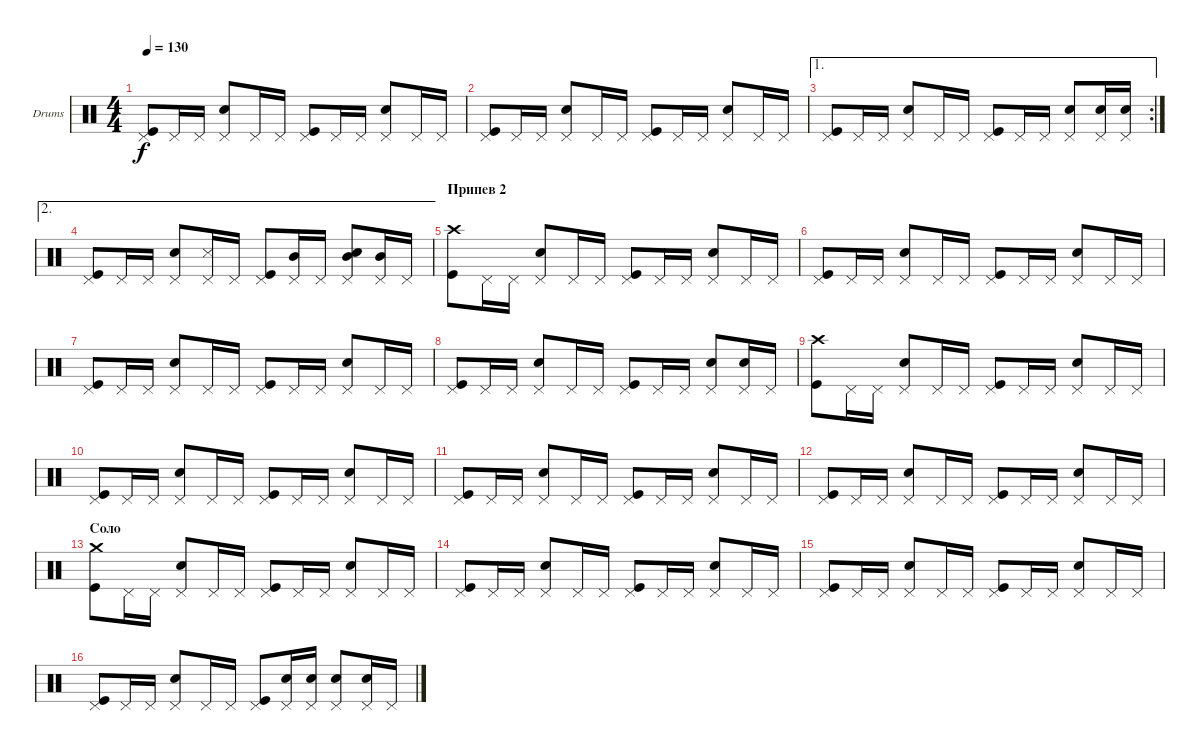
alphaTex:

\bracketExtendMode groupsimilarinstruments
\firstSystemTrackNameOrientation horizontal
\otherSystemsTrackNameOrientation horizontal
\track ("Drumkit" "Drums") {instrument percussion}
\staff {score}
\articulation defaults
\ts (4 4)
\tempo 130
\clef neutral
\ks c
("Pedal Hi-Hat (hit)" "Kick (hit)").8{dy f} "Pedal Hi-Hat (hit)".16 "Pedal Hi-Hat (hit)".16 ("Pedal Hi-Hat (hit)" "Snare (hit) 2").8 "Pedal Hi-Hat (hit)".16 "Pedal Hi-Hat (hit)".16 ("Pedal Hi-Hat (hit)" "Kick (hit)").8 "Pedal Hi-Hat (hit)".16 "Pedal Hi-Hat (hit)".16 ("Pedal Hi-Hat (hit)" "Snare (hit) 2").8 "Pedal Hi-Hat (hit)".16 "Pedal Hi-Hat (hit)".16 |
("Pedal Hi-Hat (hit)" "Kick (hit)").8 "Pedal Hi-Hat (hit)".16 "Pedal Hi-Hat (hit)".16 ("Pedal Hi-Hat (hit)" "Snare (hit) 2").8 "Pedal Hi-Hat (hit)".16 "Pedal Hi-Hat (hit)".16 ("Pedal Hi-Hat (hit)" "Kick (hit)").8 "Pedal Hi-Hat (hit)".16 "Pedal Hi-Hat (hit)".16 ("Pedal Hi-Hat (hit)" "Snare (hit) 2").8 "Pedal Hi-Hat (hit)".16 "Pedal Hi-Hat (hit)".16 |
\ae 1
\rc 2
("Pedal Hi-Hat (hit)" "Kick (hit)").8 "Pedal Hi-Hat (hit)".16 "Pedal Hi-Hat (hit)".16 ("Pedal Hi-Hat (hit)" "Snare (hit) 2").8 "Pedal Hi-Hat (hit)".16 "Pedal Hi-Hat (hit)".16 ("Pedal Hi-Hat (hit)" "Kick (hit)").8 "Pedal Hi-Hat (hit)".16 "Pedal Hi-Hat (hit)".16 ("Pedal Hi-Hat (hit)" "Snare (hit) 2").8 ("Pedal Hi-Hat (hit)" "Snare (hit) 2").16 ("Pedal Hi-Hat (hit)" "Snare (hit) 2").16 |
\ae 2
("Pedal Hi-Hat (hit)" "Kick (hit)").8 "Pedal Hi-Hat (hit)".16 "Pedal Hi-Hat (hit)".16 ("Pedal Hi-Hat (hit)" "Snare (hit) 2").8 ("Pedal Hi-Hat (hit)" "Snare (side stick) 3").16 "Pedal Hi-Hat (hit)".16 ("Pedal Hi-Hat (hit)" "Kick (hit)").8 ("Pedal Hi-Hat (hit)" "Mid Tom (hit)").16 "Pedal Hi-Hat (hit)".16 ("Pedal Hi-Hat (hit)" "Snare (hit) 2" "Mid Tom (hit)").8 ("Pedal Hi-Hat (hit)" "Mid Tom (hit)").16 "Pedal Hi-Hat (hit)".16 |
\section ("" "Припев 2")
("Crash high (hit)" "Kick (hit)").8 "Pedal Hi-Hat (hit)".16 "Pedal Hi-Hat (hit)".16 ("Pedal Hi-Hat (hit)" "Snare (hit) 2").8 "Pedal Hi-Hat (hit)".16 "Pedal Hi-Hat (hit)".16 ("Pedal Hi-Hat (hit)" "Kick (hit)").8 "Pedal Hi-Hat (hit)".16 "Pedal Hi-Hat (hit)".16 ("Pedal Hi-Hat (hit)" "Snare (hit) 2").8 "Pedal Hi-Hat (hit)".16 "Pedal Hi-Hat (hit)".16 |
("Pedal Hi-Hat (hit)" "Kick (hit)").8 "Pedal Hi-Hat (hit)".16 "Pedal Hi-Hat (hit)".16 ("Pedal Hi-Hat (hit)" "Snare (hit) 2").8 "Pedal Hi-Hat (hit)".16 "Pedal Hi-Hat (hit)".16 ("Pedal Hi-Hat (hit)" "Kick (hit)").8 "Pedal Hi-Hat (hit)".16 "Pedal Hi-Hat (hit)".16 ("Pedal Hi-Hat (hit)" "Snare (hit) 2").8 "Pedal Hi-Hat (hit)".16 "Pedal Hi-Hat (hit)".16 |
("Pedal Hi-Hat (hit)" "Kick (hit)").8 "Pedal Hi-Hat (hit)".16 "Pedal Hi-Hat (hit)".16 ("Pedal Hi-Hat (hit)" "Snare (hit) 2").8 "Pedal Hi-Hat (hit)".16 "Pedal Hi-Hat (hit)".16 ("Pedal Hi-Hat (hit)" "Kick (hit)").8 "Pedal Hi-Hat (hit)".16 "Pedal Hi-Hat (hit)".16 ("Pedal Hi-Hat (hit)" "Snare (hit) 2").8 "Pedal Hi-Hat (hit)".16 "Pedal Hi-Hat (hit)".16 |
("Pedal Hi-Hat (hit)" "Kick (hit)").8 "Pedal Hi-Hat (hit)".16 "Pedal Hi-Hat (hit)".16 ("Pedal Hi-Hat (hit)" "Snare (hit) 2").8 "Pedal Hi-Hat (hit)".16 "Pedal Hi-Hat (hit)".16 ("Pedal Hi-Hat (hit)" "Kick (hit)").8 "Pedal Hi-Hat (hit)".16 "Pedal Hi-Hat (hit)".16 ("Pedal Hi-Hat (hit)" "Snare (hit) 2").8 ("Pedal Hi-Hat (hit)" "Snare (hit) 2").16 "Pedal Hi-Hat (hit)".16 |
("Crash high (hit)" "Kick (hit)").8 "Pedal Hi-Hat (hit)".16 "Pedal Hi-Hat (hit)".16 ("Pedal Hi-Hat (hit)" "Snare (hit) 2").8 "Pedal Hi-Hat (hit)".16 "Pedal Hi-Hat (hit)".16 ("Pedal Hi-Hat (hit)" "Kick (hit)").8 "Pedal Hi-Hat (hit)".16 "Pedal Hi-Hat (hit)".16 ("Pedal Hi-Hat (hit)" "Snare (hit) 2").8 "Pedal Hi-Hat (hit)".16 "Pedal Hi-Hat (hit)".16 |
("Pedal Hi-Hat (hit)" "Kick (hit)").8 "Pedal Hi-Hat (hit)".16 "Pedal Hi-Hat (hit)".16 ("Pedal Hi-Hat (hit)" "Snare (hit) 2").8 "Pedal Hi-Hat (hit)".16 "Pedal Hi-Hat (hit)".16 ("Pedal Hi-Hat (hit)" "Kick (hit)").8 "Pedal Hi-Hat (hit)".16 "Pedal Hi-Hat (hit)".16 ("Pedal Hi-Hat (hit)" "Snare (hit) 2").8 "Pedal Hi-Hat (hit)".16 "Pedal Hi-Hat (hit)".16 |
("Pedal Hi-Hat (hit)" "Kick (hit)").8 "Pedal Hi-Hat (hit)".16 "Pedal Hi-Hat (hit)".16 ("Pedal Hi-Hat (hit)" "Snare (hit) 2").8 "Pedal Hi-Hat (hit)".16 "Pedal Hi-Hat (hit)".16 ("Pedal Hi-Hat (hit)" "Kick (hit)").8 "Pedal Hi-Hat (hit)".16 "Pedal Hi-Hat (hit)".16 ("Pedal Hi-Hat (hit)" "Snare (hit) 2").8 "Pedal Hi-Hat (hit)".16 "Pedal Hi-Hat (hit)".16 |
("Pedal Hi-Hat (hit)" "Kick (hit)").8 "Pedal Hi-Hat (hit)".16 "Pedal Hi-Hat (hit)".16 ("Pedal Hi-Hat (hit)" "Snare (hit) 2").8 "Pedal Hi-Hat (hit)".16 "Pedal Hi-Hat (hit)".16 ("Pedal Hi-Hat (hit)" "Kick (hit)").8 "Pedal Hi-Hat (hit)".16 "Pedal Hi-Hat (hit)".16 ("Pedal Hi-Hat (hit)" "Snare (hit) 2").8 "Pedal Hi-Hat (hit)".16 "Pedal Hi-Hat (hit)".16 |
\section ("" "Соло")
("Crash medium (hit)" "Kick (hit)").8 "Pedal Hi-Hat (hit)".16 "Pedal Hi-Hat (hit)".16 ("Pedal Hi-Hat (hit)" "Snare (hit) 2").8 "Pedal Hi-Hat (hit)".16 "Pedal Hi-Hat (hit)".16 ("Pedal Hi-Hat (hit)" "Kick (hit)").8 "Pedal Hi-Hat (hit)".16 "Pedal Hi-Hat (hit)".16 ("Pedal Hi-Hat (hit)" "Snare (hit) 2").8 "Pedal Hi-Hat (hit)".16 "Pedal Hi-Hat (hit)".16 |
("Pedal Hi-Hat (hit)" "Kick (hit)").8 "Pedal Hi-Hat (hit)".16 "Pedal Hi-Hat (hit)".16 ("Pedal Hi-Hat (hit)" "Snare (hit) 2").8 "Pedal Hi-Hat (hit)".16 "Pedal Hi-Hat (hit)".16 ("Pedal Hi-Hat (hit)" "Kick (hit)").8 "Pedal Hi-Hat (hit)".16 "Pedal Hi-Hat (hit)".16 ("Pedal Hi-Hat (hit)" "Snare (hit) 2").8 "Pedal Hi-Hat (hit)".16 "Pedal Hi-Hat (hit)".16 |
("Pedal Hi-Hat (hit)" "Kick (hit)").8 "Pedal Hi-Hat (hit)".16 "Pedal Hi-Hat (hit)".16 ("Pedal Hi-Hat (hit)" "Snare (hit) 2").8 "Pedal Hi-Hat (hit)".16 "Pedal Hi-Hat (hit)".16 ("Pedal Hi-Hat (hit)" "Kick (hit)").8 "Pedal Hi-Hat (hit)".16 "Pedal Hi-Hat (hit)".16 ("Pedal Hi-Hat (hit)" "Snare (hit) 2").8 "Pedal Hi-Hat (hit)".16 "Pedal Hi-Hat (hit)".16 |
("Pedal Hi-Hat (hit)" "Kick (hit)").8 "Pedal Hi-Hat (hit)".16 "Pedal Hi-Hat (hit)".16 ("Pedal Hi-Hat (hit)" "Snare (hit) 2").8 "Pedal Hi-Hat (hit)".16 "Pedal Hi-Hat (hit)".16 ("Pedal Hi-Hat (hit)" "Kick (hit)").8 ("Pedal Hi-Hat (hit)" "Snare (hit) 2").16 ("Pedal Hi-Hat (hit)" "Snare (hit) 2").16 ("Pedal Hi-Hat (hit)" "Snare (hit) 2").8 ("Pedal Hi-Hat (hit)" "Snare (hit) 2").16 "Pedal Hi-Hat (hit)".16
